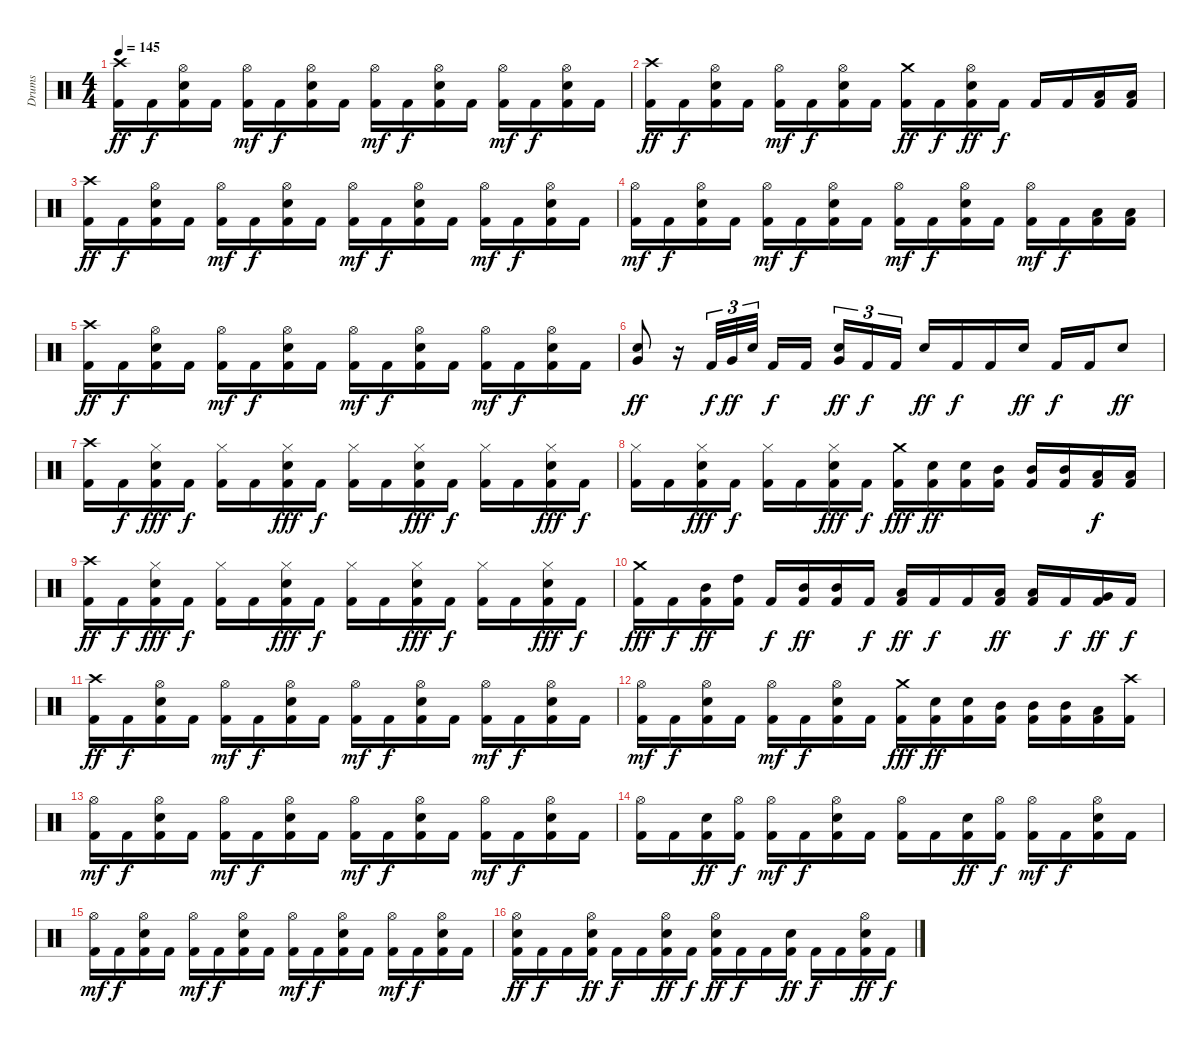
\track ("Drums" "Drums") {instrument percussion}
\staff {score}
\articulation defaults
\ts (4 4)
\tempo 145
\clef neutral
\ks c
("Kick (hit) 2" "Crash high (hit)").16{dy ff} "Kick (hit) 2".16{dy f} ("Kick (hit) 2" "Snare (hit) 2" "Hi-Hat (open)").16 "Kick (hit) 2".16 ("Kick (hit) 2" "Hi-Hat (open)").16{dy mf} "Kick (hit) 2".16{dy f} ("Kick (hit) 2" "Snare (hit) 2" "Hi-Hat (open)").16 "Kick (hit) 2".16 ("Kick (hit) 2" "Hi-Hat (open)").16{dy mf} "Kick (hit) 2".16{dy f} ("Kick (hit) 2" "Snare (hit) 2" "Hi-Hat (open)").16 "Kick (hit) 2".16 ("Kick (hit) 2" "Hi-Hat (open)").16{dy mf} "Kick (hit) 2".16{dy f} ("Kick (hit) 2" "Snare (hit) 2" "Hi-Hat (open)").16 "Kick (hit) 2".16 |
("Crash high (hit)" "Kick (hit) 2").16{dy ff} "Kick (hit) 2".16{dy f} ("Snare (hit) 2" "Hi-Hat (open)" "Kick (hit) 2").16 "Kick (hit) 2".16 ("Hi-Hat (open)" "Kick (hit) 2").16{dy mf} "Kick (hit) 2".16{dy f} ("Snare (hit) 2" "Hi-Hat (open)" "Kick (hit) 2").16 "Kick (hit) 2".16 ("Crash medium (hit)" "Kick (hit) 2").16{dy ff} "Kick (hit) 2".16{dy f} ("Hi-Hat (open)" "Snare (hit) 2" "Kick (hit) 2").16{dy ff} "Kick (hit) 2".16{dy f} "Kick (hit) 2".16 "Kick (hit) 2".16 ("Low Tom (hit)" "Kick (hit) 2").16 ("Low Tom (hit)" "Kick (hit) 2").16 |
("Kick (hit) 2" "Crash high (hit)").16{dy ff} "Kick (hit) 2".16{dy f} ("Kick (hit) 2" "Snare (hit) 2" "Hi-Hat (open)").16 "Kick (hit) 2".16 ("Kick (hit) 2" "Hi-Hat (open)").16{dy mf} "Kick (hit) 2".16{dy f} ("Kick (hit) 2" "Snare (hit) 2" "Hi-Hat (open)").16 "Kick (hit) 2".16 ("Kick (hit) 2" "Hi-Hat (open)").16{dy mf} "Kick (hit) 2".16{dy f} ("Kick (hit) 2" "Snare (hit) 2" "Hi-Hat (open)").16 "Kick (hit) 2".16 ("Kick (hit) 2" "Hi-Hat (open)").16{dy mf} "Kick (hit) 2".16{dy f} ("Kick (hit) 2" "Snare (hit) 2" "Hi-Hat (open)").16 "Kick (hit) 2".16 |
("Hi-Hat (open)" "Kick (hit) 2").16{dy mf} "Kick (hit) 2".16{dy f} ("Snare (hit) 2" "Hi-Hat (open)" "Kick (hit) 2").16 "Kick (hit) 2".16 ("Hi-Hat (open)" "Kick (hit) 2").16{dy mf} "Kick (hit) 2".16{dy f} ("Snare (hit) 2" "Hi-Hat (open)" "Kick (hit) 2").16 "Kick (hit) 2".16 ("Hi-Hat (open)" "Kick (hit) 2").16{dy mf} "Kick (hit) 2".16{dy f} ("Snare (hit) 2" "Hi-Hat (open)" "Kick (hit) 2").16 "Kick (hit) 2".16 ("Hi-Hat (open)" "Kick (hit) 2").16{dy mf} "Kick (hit) 2".16{dy f} ("Low Tom (hit)" "Kick (hit) 2").16 ("Low Tom (hit)" "Kick (hit) 2").16 |
("Crash high (hit)" "Kick (hit) 2").16{dy ff} "Kick (hit) 2".16{dy f} ("Kick (hit) 2" "Snare (hit) 2" "Hi-Hat (open)").16 "Kick (hit) 2".16 ("Kick (hit) 2" "Hi-Hat (open)").16{dy mf} "Kick (hit) 2".16{dy f} ("Kick (hit) 2" "Snare (hit) 2" "Hi-Hat (open)").16 "Kick (hit) 2".16 ("Kick (hit) 2" "Hi-Hat (open)").16{dy mf} "Kick (hit) 2".16{dy f} ("Kick (hit) 2" "Snare (hit) 2" "Hi-Hat (open)").16 "Kick (hit) 2".16 ("Kick (hit) 2" "Hi-Hat (open)").16{dy mf} "Kick (hit) 2".16{dy f} ("Kick (hit) 2" "Snare (hit) 2" "Hi-Hat (open)").16 "Kick (hit) 2".16 |
("Snare (hit) 2" "Very Low Tom (hit)").8{dy ff} r.16 "Kick (hit) 2".32{tu (3 2) dy f} "Very Low Tom (hit)".32{tu (3 2) dy ff} "Snare (hit) 2".32{tu (3 2)} "Kick (hit) 2".16{dy f} "Kick (hit) 2".16 ("Very Low Tom (hit)" "Snare (hit) 2").16{tu (3 2) dy ff} "Kick (hit) 2".16{tu (3 2) dy f} "Kick (hit) 2".16{tu (3 2)} "Snare (hit) 2".16{dy ff} "Kick (hit) 2".16{dy f} "Kick (hit) 2".16 "Snare (hit) 2".16{dy ff} "Kick (hit) 2".16{dy f} "Kick (hit) 2".16 "Snare (hit) 2".8{dy ff} |
("Crash high (hit)" "Kick (hit) 2").16 "Kick (hit) 2".16{dy f} ("Snare (hit) 2" "Hi-Hat (closed)" "Kick (hit) 2").16{dy fff} "Kick (hit) 2".16{dy f} ("Hi-Hat (closed)" "Kick (hit) 2").16 "Kick (hit) 2".16 ("Snare (hit) 2" "Hi-Hat (closed)" "Kick (hit) 2").16{dy fff} "Kick (hit) 2".16{dy f} ("Hi-Hat (closed)" "Kick (hit) 2").16 "Kick (hit) 2".16 ("Snare (hit) 2" "Hi-Hat (closed)" "Kick (hit) 2").16{dy fff} "Kick (hit) 2".16{dy f} ("Hi-Hat (closed)" "Kick (hit) 2").16 "Kick (hit) 2".16 ("Snare (hit) 2" "Hi-Hat (closed)" "Kick (hit) 2").16{dy fff} "Kick (hit) 2".16{dy f} |
("Hi-Hat (closed)" "Kick (hit) 2").16 "Kick (hit) 2".16 ("Snare (hit) 2" "Hi-Hat (closed)" "Kick (hit) 2").16{dy fff} "Kick (hit) 2".16{dy f} ("Hi-Hat (closed)" "Kick (hit) 2").16 "Kick (hit) 2".16 ("Snare (hit) 2" "Hi-Hat (closed)" "Kick (hit) 2").16{dy fff} "Kick (hit) 2".16{dy f} ("Crash medium (hit)" "Kick (hit) 2").16{dy fff} ("Snare (hit) 2" "Kick (hit) 2").16{dy ff} ("Snare (hit) 2" "Kick (hit) 2").16 ("Mid Tom (hit)" "Kick (hit) 2").16 ("Mid Tom (hit)" "Kick (hit) 2").16 ("Mid Tom (hit)" "Kick (hit) 2").16 ("Low Tom (hit)" "Kick (hit) 2").16{dy f} ("Low Tom (hit)" "Kick (hit) 2").16 |
("Crash high (hit)" "Kick (hit) 2").16{dy ff} "Kick (hit) 2".16{dy f} ("Snare (hit) 2" "Hi-Hat (closed)" "Kick (hit) 2").16{dy fff} "Kick (hit) 2".16{dy f} ("Hi-Hat (closed)" "Kick (hit) 2").16 "Kick (hit) 2".16 ("Snare (hit) 2" "Hi-Hat (closed)" "Kick (hit) 2").16{dy fff} "Kick (hit) 2".16{dy f} ("Hi-Hat (closed)" "Kick (hit) 2").16 "Kick (hit) 2".16 ("Snare (hit) 2" "Hi-Hat (closed)" "Kick (hit) 2").16{dy fff} "Kick (hit) 2".16{dy f} ("Hi-Hat (closed)" "Kick (hit) 2").16 "Kick (hit) 2".16 ("Snare (hit) 2" "Hi-Hat (closed)" "Kick (hit) 2").16{dy fff} "Kick (hit) 2".16{dy f} |
("Crash medium (hit)" "Kick (hit) 2").16{dy fff} "Kick (hit) 2".16{dy f} ("Mid Tom (hit)" "Kick (hit) 2").16{dy ff} ("High Tom (hit)" "Kick (hit) 2").16 "Kick (hit) 2".16{dy f} ("Mid Tom (hit)" "Kick (hit) 2").16{dy ff} ("Mid Tom (hit)" "Kick (hit) 2").16 "Kick (hit) 2".16{dy f} ("Low Tom (hit)" "Kick (hit) 2").16{dy ff} "Kick (hit) 2".16{dy f} "Kick (hit) 2".16 ("Low Tom (hit)" "Kick (hit) 2").16{dy ff} ("Low Tom (hit)" "Kick (hit) 2").16 "Kick (hit) 2".16{dy f} ("Very Low Tom (hit)" "Kick (hit) 2").16{dy ff} "Kick (hit) 2".16{dy f} |
("Kick (hit) 2" "Crash high (hit)").16{dy ff} "Kick (hit) 2".16{dy f} ("Kick (hit) 2" "Snare (hit) 2" "Hi-Hat (open)").16 "Kick (hit) 2".16 ("Kick (hit) 2" "Hi-Hat (open)").16{dy mf} "Kick (hit) 2".16{dy f} ("Kick (hit) 2" "Snare (hit) 2" "Hi-Hat (open)").16 "Kick (hit) 2".16 ("Kick (hit) 2" "Hi-Hat (open)").16{dy mf} "Kick (hit) 2".16{dy f} ("Kick (hit) 2" "Snare (hit) 2" "Hi-Hat (open)").16 "Kick (hit) 2".16 ("Kick (hit) 2" "Hi-Hat (open)").16{dy mf} "Kick (hit) 2".16{dy f} ("Kick (hit) 2" "Snare (hit) 2" "Hi-Hat (open)").16 "Kick (hit) 2".16 |
("Hi-Hat (open)" "Kick (hit) 2").16{dy mf} "Kick (hit) 2".16{dy f} ("Snare (hit) 2" "Hi-Hat (open)" "Kick (hit) 2").16 "Kick (hit) 2".16 ("Hi-Hat (open)" "Kick (hit) 2").16{dy mf} "Kick (hit) 2".16{dy f} ("Snare (hit) 2" "Hi-Hat (open)" "Kick (hit) 2").16 "Kick (hit) 2".16 ("Crash medium (hit)" "Kick (hit) 2").16{dy fff} ("Snare (hit) 2" "Kick (hit) 2").16{dy ff} ("Snare (hit) 2" "Kick (hit) 2").16 ("Mid Tom (hit)" "Kick (hit) 2").16 ("Mid Tom (hit)" "Kick (hit) 2").16 ("Mid Tom (hit)" "Kick (hit) 2").16 ("Low Tom (hit)" "Kick (hit) 2").16 ("Crash high (hit)" "Kick (hit) 2").16 |
("Kick (hit) 2" "Hi-Hat (open)").16{dy mf} "Kick (hit) 2".16{dy f} ("Kick (hit) 2" "Snare (hit) 2" "Hi-Hat (open)").16 "Kick (hit) 2".16 ("Kick (hit) 2" "Hi-Hat (open)").16{dy mf} "Kick (hit) 2".16{dy f} ("Kick (hit) 2" "Snare (hit) 2" "Hi-Hat (open)").16 "Kick (hit) 2".16 ("Kick (hit) 2" "Hi-Hat (open)").16{dy mf} "Kick (hit) 2".16{dy f} ("Kick (hit) 2" "Snare (hit) 2" "Hi-Hat (open)").16 "Kick (hit) 2".16 ("Kick (hit) 2" "Hi-Hat (open)").16{dy mf} "Kick (hit) 2".16{dy f} ("Kick (hit) 2" "Snare (hit) 2" "Hi-Hat (open)").16 "Kick (hit) 2".16 |
("Hi-Hat (open)" "Kick (hit) 2").16 "Kick (hit) 2".16 ("Snare (hit) 2" "Kick (hit) 2").16{dy ff} ("Hi-Hat (open)" "Kick (hit) 2").16{dy f} ("Hi-Hat (open)" "Kick (hit) 2").16{dy mf} "Kick (hit) 2".16{dy f} ("Snare (hit) 2" "Hi-Hat (open)" "Kick (hit) 2").16 "Kick (hit) 2".16 ("Hi-Hat (open)" "Kick (hit) 2").16 "Kick (hit) 2".16 ("Snare (hit) 2" "Kick (hit) 2").16{dy ff} ("Hi-Hat (open)" "Kick (hit) 2").16{dy f} ("Hi-Hat (open)" "Kick (hit) 2").16{dy mf} "Kick (hit) 2".16{dy f} ("Snare (hit) 2" "Hi-Hat (open)" "Kick (hit) 2").16 "Kick (hit) 2".16 |
("Kick (hit) 2" "Hi-Hat (open)").16{dy mf} "Kick (hit) 2".16{dy f} ("Kick (hit) 2" "Snare (hit) 2" "Hi-Hat (open)").16 "Kick (hit) 2".16 ("Kick (hit) 2" "Hi-Hat (open)").16{dy mf} "Kick (hit) 2".16{dy f} ("Kick (hit) 2" "Snare (hit) 2" "Hi-Hat (open)").16 "Kick (hit) 2".16 ("Kick (hit) 2" "Hi-Hat (open)").16{dy mf} "Kick (hit) 2".16{dy f} ("Kick (hit) 2" "Snare (hit) 2" "Hi-Hat (open)").16 "Kick (hit) 2".16 ("Kick (hit) 2" "Hi-Hat (open)").16{dy mf} "Kick (hit) 2".16{dy f} ("Kick (hit) 2" "Snare (hit) 2" "Hi-Hat (open)").16 "Kick (hit) 2".16 |
("Hi-Hat (open)" "Snare (hit) 2" "Kick (hit) 2").16{dy ff} "Kick (hit) 2".16{dy f} "Kick (hit) 2".16 ("Hi-Hat (open)" "Snare (hit) 2" "Kick (hit) 2").16{dy ff} "Kick (hit) 2".16{dy f} "Kick (hit) 2".16 ("Hi-Hat (open)" "Snare (hit) 2" "Kick (hit) 2").16{dy ff} "Kick (hit) 2".16{dy f} ("Hi-Hat (open)" "Snare (hit) 2" "Kick (hit) 2").16{dy ff} "Kick (hit) 2".16{dy f} "Kick (hit) 2".16 ("Snare (hit) 2" "Kick (hit) 2").16{dy ff} "Kick (hit) 2".16{dy f} "Kick (hit) 2".16 ("Hi-Hat (open)" "Snare (hit) 2" "Kick (hit) 2").16{dy ff} "Kick (hit) 2".16{dy f}
